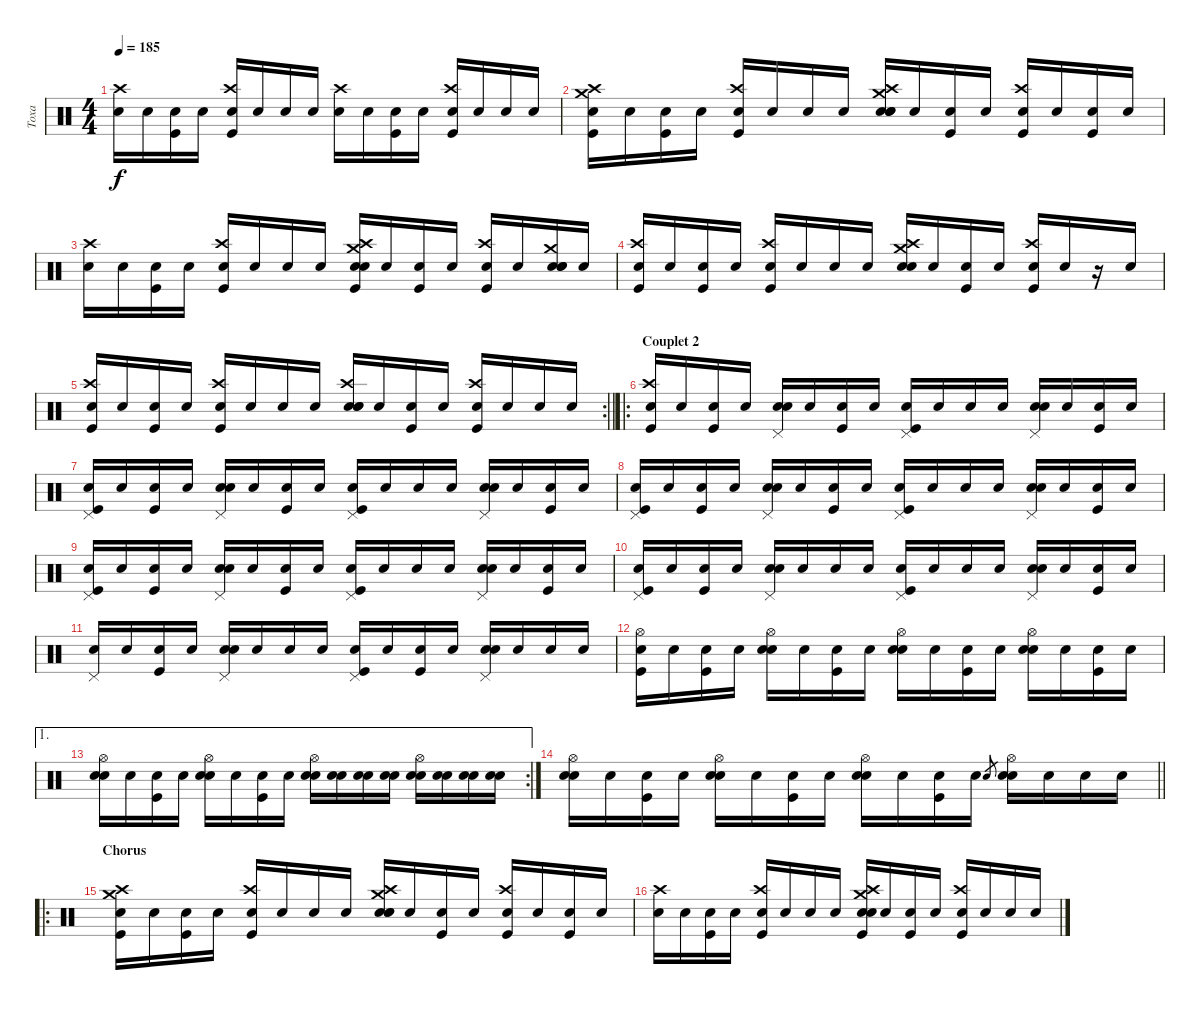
\track ("Toxa" "Toxa") {instrument percussion}
\staff {score}
\articulation defaults
\ts (4 4)
\tempo 185
\clef neutral
\ks c
("Snare (hit)"{x} "Crash high (hit)").16{dy f} "Snare (hit)"{x}.16 ("Snare (hit)"{x} "Kick (hit)").16 "Snare (hit)"{x}.16 ("Snare (hit)"{x} "Kick (hit)" "Crash high (hit)").16 "Snare (hit)"{x}.16 "Snare (hit)"{x}.16 "Snare (hit)"{x}.16 ("Snare (hit)"{x} "Crash high (hit)").16 "Snare (hit)"{x}.16 ("Snare (hit)"{x} "Kick (hit)").16 "Snare (hit)"{x}.16 ("Snare (hit)"{x} "Kick (hit)" "Crash high (hit)").16 "Snare (hit)"{x}.16 "Snare (hit)"{x}.16 "Snare (hit)"{x}.16 |
("Snare (hit)"{x} "Kick (hit)" "Crash medium (hit)" "Crash high (hit)").16 "Snare (hit)"{x}.16 ("Snare (hit)"{x} "Kick (hit)").16 "Snare (hit)"{x}.16 ("Snare (hit)"{x} "Kick (hit)" "Crash high (hit)").16 "Snare (hit)"{x}.16 "Snare (hit)"{x}.16 "Snare (hit)"{x}.16 ("Snare (hit)"{x} "Crash medium (hit)" "Electric Snare (hit)" "Snare (hit) 2" "Crash high (hit)").16 "Snare (hit)"{x}.16 ("Snare (hit)"{x} "Kick (hit)").16 "Snare (hit)"{x}.16 ("Snare (hit)"{x} "Kick (hit)" "Crash high (hit)").16 "Snare (hit)"{x}.16 ("Snare (hit)"{x} "Kick (hit)").16 "Snare (hit)"{x}.16 |
("Snare (hit)"{x} "Crash high (hit)").16 "Snare (hit)"{x}.16 ("Snare (hit)"{x} "Kick (hit)").16 "Snare (hit)"{x}.16 ("Snare (hit)"{x} "Kick (hit)" "Crash high (hit)").16 "Snare (hit)"{x}.16 "Snare (hit)"{x}.16 "Snare (hit)"{x}.16 ("Snare (hit)"{x} "Electric Snare (hit)" "Crash medium (hit)" "Kick (hit)" "Crash high (hit)").16 "Snare (hit)"{x}.16 ("Snare (hit)"{x} "Kick (hit)").16 "Snare (hit)"{x}.16 ("Snare (hit)"{x} "Kick (hit)" "Crash high (hit)").16 "Snare (hit)"{x}.16 ("Snare (hit)"{x} "Electric Snare (hit)" "Crash medium (hit)" "Snare (hit) 2").16 "Snare (hit)"{x}.16 |
("Snare (hit)"{x} "Kick (hit)" "Crash high (hit)").16 "Snare (hit)"{x}.16 ("Snare (hit)"{x} "Kick (hit)").16 "Snare (hit)"{x}.16 ("Snare (hit)"{x} "Kick (hit)" "Crash high (hit)").16 "Snare (hit)"{x}.16 "Snare (hit)"{x}.16 "Snare (hit)"{x}.16 ("Crash medium (hit)" "Electric Snare (hit)" "Snare (hit) 2" "Crash high (hit)").16 "Snare (hit)"{x}.16 ("Snare (hit)"{x} "Kick (hit)").16 "Snare (hit)"{x}.16 ("Snare (hit)"{x} "Kick (hit)" "Crash high (hit)").16 "Snare (hit)"{x}.16 r.16 "Snare (hit)"{x}.16 |
\rc 2
\barLineRight lightlight
("Snare (hit)"{x} "Kick (hit)" "Crash high (hit)").16 "Snare (hit)"{x}.16 ("Snare (hit)"{x} "Kick (hit)").16 "Snare (hit)"{x}.16 ("Snare (hit)"{x} "Kick (hit)" "Crash high (hit)").16 "Snare (hit)"{x}.16 "Snare (hit)"{x}.16 "Snare (hit)"{x}.16 ("Snare (hit)"{x} "Snare (hit) 2" "Electric Snare (hit)" "Crash high (hit)").16 "Snare (hit)"{x}.16 ("Snare (hit)"{x} "Kick (hit)").16 "Snare (hit)"{x}.16 ("Snare (hit)"{x} "Kick (hit)" "Crash high (hit)").16 "Snare (hit)"{x}.16 "Snare (hit)"{x}.16 "Snare (hit)"{x}.16 |
\ro
\section ("" "Couplet 2")
("Snare (hit)"{x} "Kick (hit)" "Crash high (hit)").16 "Snare (hit)"{x}.16 ("Snare (hit)"{x} "Kick (hit)").16 "Snare (hit)"{x}.16 ("Snare (hit)"{x} "Electric Snare (hit)" "Pedal Hi-Hat (hit)").16 "Snare (hit)"{x}.16 ("Snare (hit)"{x} "Kick (hit)").16 "Snare (hit)"{x}.16 ("Snare (hit)"{x} "Kick (hit)" "Pedal Hi-Hat (hit)").16 "Snare (hit)"{x}.16 "Snare (hit)"{x}.16 "Snare (hit)"{x}.16 ("Snare (hit)"{x} "Electric Snare (hit)" "Pedal Hi-Hat (hit)").16 "Snare (hit)"{x}.16 ("Snare (hit)"{x} "Kick (hit)").16 "Snare (hit)"{x}.16 |
("Snare (hit)"{x} "Kick (hit)" "Pedal Hi-Hat (hit)").16 "Snare (hit)"{x}.16 ("Snare (hit)"{x} "Kick (hit)").16 "Snare (hit)"{x}.16 ("Snare (hit)"{x} "Electric Snare (hit)" "Pedal Hi-Hat (hit)").16 "Snare (hit)"{x}.16 ("Snare (hit)"{x} "Kick (hit)").16 "Snare (hit)"{x}.16 ("Snare (hit)"{x} "Kick (hit)" "Pedal Hi-Hat (hit)").16 "Snare (hit)"{x}.16 "Snare (hit)"{x}.16 "Snare (hit)"{x}.16 ("Snare (hit)"{x} "Electric Snare (hit)" "Pedal Hi-Hat (hit)").16 "Snare (hit)"{x}.16 ("Snare (hit)"{x} "Kick (hit)").16 "Snare (hit)"{x}.16 |
("Snare (hit)"{x} "Kick (hit)" "Pedal Hi-Hat (hit)").16 "Snare (hit)"{x}.16 ("Snare (hit)"{x} "Kick (hit)").16 "Snare (hit)"{x}.16 ("Snare (hit)"{x} "Electric Snare (hit)" "Pedal Hi-Hat (hit)").16 "Snare (hit)"{x}.16 ("Snare (hit)"{x} "Kick (hit)").16 "Snare (hit)"{x}.16 ("Snare (hit)"{x} "Kick (hit)" "Pedal Hi-Hat (hit)").16 "Snare (hit)"{x}.16 "Snare (hit)"{x}.16 "Snare (hit)"{x}.16 ("Snare (hit)"{x} "Electric Snare (hit)" "Pedal Hi-Hat (hit)").16 "Snare (hit)"{x}.16 ("Snare (hit)"{x} "Kick (hit)").16 "Snare (hit)"{x}.16 |
("Snare (hit)"{x} "Kick (hit)" "Pedal Hi-Hat (hit)").16 "Snare (hit)"{x}.16 ("Snare (hit)"{x} "Kick (hit)").16 "Snare (hit)"{x}.16 ("Snare (hit)"{x} "Electric Snare (hit)" "Pedal Hi-Hat (hit)").16 "Snare (hit)"{x}.16 ("Snare (hit)"{x} "Kick (hit)").16 "Snare (hit)"{x}.16 ("Snare (hit)"{x} "Kick (hit)" "Pedal Hi-Hat (hit)").16 "Snare (hit)"{x}.16 "Snare (hit)"{x}.16 "Snare (hit)"{x}.16 ("Snare (hit)"{x} "Electric Snare (hit)" "Pedal Hi-Hat (hit)").16 "Snare (hit)"{x}.16 ("Snare (hit)"{x} "Kick (hit)").16 "Snare (hit)"{x}.16 |
("Snare (hit)"{x} "Kick (hit)" "Pedal Hi-Hat (hit)").16 "Snare (hit)"{x}.16 ("Snare (hit)"{x} "Kick (hit)").16 "Snare (hit)"{x}.16 ("Snare (hit)"{x} "Electric Snare (hit)" "Pedal Hi-Hat (hit)").16 "Snare (hit)"{x}.16 "Snare (hit)"{x}.16 "Snare (hit)"{x}.16 ("Snare (hit)"{x} "Kick (hit)" "Pedal Hi-Hat (hit)").16 "Snare (hit)"{x}.16 "Snare (hit)"{x}.16 "Snare (hit)"{x}.16 ("Snare (hit)"{x} "Electric Snare (hit)" "Pedal Hi-Hat (hit)").16 "Snare (hit)"{x}.16 ("Snare (hit)"{x} "Kick (hit)").16 "Snare (hit)"{x}.16 |
("Snare (hit)"{x} "Pedal Hi-Hat (hit)").16 "Snare (hit)"{x}.16 ("Snare (hit)"{x} "Kick (hit)").16 "Snare (hit)"{x}.16 ("Snare (hit)"{x} "Electric Snare (hit)" "Pedal Hi-Hat (hit)").16 "Snare (hit)"{x}.16 "Snare (hit)"{x}.16 "Snare (hit)"{x}.16 ("Snare (hit)"{x} "Kick (hit)" "Pedal Hi-Hat (hit)").16 "Snare (hit)"{x}.16 ("Snare (hit)"{x} "Kick (hit)").16 "Snare (hit)"{x}.16 ("Snare (hit)"{x} "Electric Snare (hit)" "Pedal Hi-Hat (hit)").16 "Snare (hit)"{x}.16 "Snare (hit)"{x}.16 "Snare (hit)"{x}.16 |
("Snare (hit)"{x} "Kick (hit)" "Hi-Hat (open)").16 "Snare (hit)"{x}.16 ("Snare (hit)"{x} "Kick (hit)").16 "Snare (hit)"{x}.16 ("Snare (hit)"{x} "Electric Snare (hit)" "Hi-Hat (open)").16 "Snare (hit)"{x}.16 ("Snare (hit)"{x} "Kick (hit)").16 "Snare (hit)"{x}.16 ("Snare (hit)"{x} "Electric Snare (hit)" "Hi-Hat (open)").16 "Snare (hit)"{x}.16 ("Snare (hit)"{x} "Kick (hit)").16 "Snare (hit)"{x}.16 ("Snare (hit)"{x} "Electric Snare (hit)" "Hi-Hat (open)").16 "Snare (hit)"{x}.16 ("Snare (hit)"{x} "Kick (hit)").16 "Snare (hit)"{x}.16 |
\ae 1
\rc 2
("Snare (hit)"{x} "Electric Snare (hit)" "Hi-Hat (open)").16 "Snare (hit)"{x}.16 ("Snare (hit)"{x} "Kick (hit)").16 "Snare (hit)"{x}.16 ("Snare (hit)"{x} "Electric Snare (hit)" "Hi-Hat (open)").16 "Snare (hit)"{x}.16 ("Snare (hit)"{x} "Kick (hit)").16 "Snare (hit)"{x}.16 ("Snare (hit)"{x} "Electric Snare (hit)" "Hi-Hat (open)").16 ("Snare (hit)"{x} "Electric Snare (hit)").16 ("Snare (hit)"{x} "Electric Snare (hit)").16 ("Snare (hit)"{x} "Electric Snare (hit)").16 ("Snare (hit)"{x} "Electric Snare (hit)" "Hi-Hat (open)").16 ("Snare (hit)"{x} "Electric Snare (hit)").16 ("Snare (hit)"{x} "Electric Snare (hit)").16 ("Snare (hit)"{x} "Electric Snare (hit)").16 |
\barLineRight lightlight
("Snare (hit)"{x} "Electric Snare (hit)" "Hi-Hat (open)").16 "Snare (hit)"{x}.16 ("Snare (hit)"{x} "Kick (hit)").16 "Snare (hit)"{x}.16 ("Snare (hit)"{x} "Electric Snare (hit)" "Hi-Hat (open)").16 "Snare (hit)"{x}.16 ("Snare (hit)"{x} "Kick (hit)").16 "Snare (hit)"{x}.16 ("Snare (hit)"{x} "Electric Snare (hit)" "Hi-Hat (open)").16 "Snare (hit)"{x}.16 ("Snare (hit)"{x} "Kick (hit)").16 "Snare (hit)"{x}.16 "Electric Snare (hit)".8{gr} ("Snare (hit)"{x} "Electric Snare (hit)" "Hi-Hat (open)").16 "Snare (hit)"{x}.16 "Snare (hit)"{x}.16 "Snare (hit)"{x}.16 |
\ro
\section ("" "Chorus")
("Snare (hit)"{x} "Kick (hit)" "Crash medium (hit)" "Crash high (hit)").16 "Snare (hit)"{x}.16 ("Snare (hit)"{x} "Kick (hit)").16 "Snare (hit)"{x}.16 ("Snare (hit)"{x} "Kick (hit)" "Crash high (hit)").16 "Snare (hit)"{x}.16 "Snare (hit)"{x}.16 "Snare (hit)"{x}.16 ("Snare (hit)"{x} "Crash medium (hit)" "Electric Snare (hit)" "Snare (hit) 2" "Crash high (hit)").16 "Snare (hit)"{x}.16 ("Snare (hit)"{x} "Kick (hit)").16 "Snare (hit)"{x}.16 ("Snare (hit)"{x} "Kick (hit)" "Crash high (hit)").16 "Snare (hit)"{x}.16 ("Snare (hit)"{x} "Kick (hit)").16 "Snare (hit)"{x}.16 |
("Snare (hit)"{x} "Crash high (hit)").16 "Snare (hit)"{x}.16 ("Snare (hit)"{x} "Kick (hit)").16 "Snare (hit)"{x}.16 ("Snare (hit)"{x} "Kick (hit)" "Crash high (hit)").16 "Snare (hit)"{x}.16 "Snare (hit)"{x}.16 "Snare (hit)"{x}.16 ("Snare (hit)"{x} "Electric Snare (hit)" "Crash medium (hit)" "Kick (hit)" "Crash high (hit)").16 "Snare (hit)"{x}.16 ("Snare (hit)"{x} "Kick (hit)").16 "Snare (hit)"{x}.16 ("Snare (hit)"{x} "Kick (hit)" "Crash high (hit)").16 "Snare (hit)"{x}.16 "Snare (hit)"{x}.16 "Snare (hit)"{x}.16
